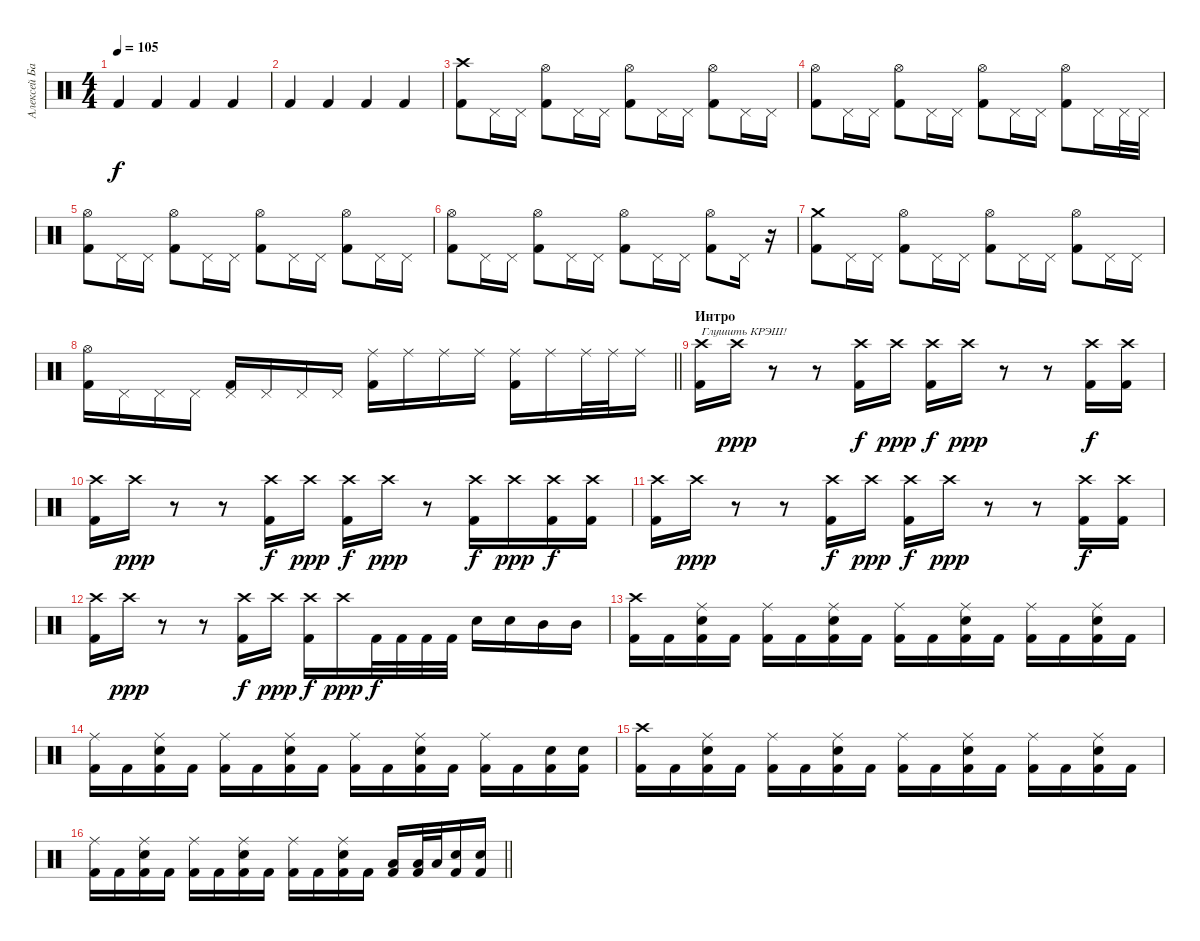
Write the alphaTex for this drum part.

\track ("Алексей Барзилович" "Алексей Ба") {instrument percussion}
\staff {score}
\articulation defaults
\ts (4 4)
\tempo 105
\clef neutral
\ks c "Kick (hit) 2".4{dy f} "Kick (hit) 2".4 "Kick (hit) 2".4 "Kick (hit) 2".4
|
"Kick (hit) 2".4 "Kick (hit) 2".4 "Kick (hit) 2".4 "Kick (hit) 2".4 |
("Crash high (hit)" "Kick (hit) 2").8 "Pedal Hi-Hat (hit)".16 "Pedal Hi-Hat (hit)".16 ("Hi-Hat (open)" "Kick (hit) 2").8 "Pedal Hi-Hat (hit)".16 "Pedal Hi-Hat (hit)".16 ("Hi-Hat (open)" "Kick (hit) 2").8 "Pedal Hi-Hat (hit)".16 "Pedal Hi-Hat (hit)".16 ("Hi-Hat (open)" "Kick (hit) 2").8 "Pedal Hi-Hat (hit)".16 "Pedal Hi-Hat (hit)".16 |
("Hi-Hat (open)" "Kick (hit) 2").8 "Pedal Hi-Hat (hit)".16 "Pedal Hi-Hat (hit)".16 ("Hi-Hat (open)" "Kick (hit) 2").8 "Pedal Hi-Hat (hit)".16 "Pedal Hi-Hat (hit)".16 ("Hi-Hat (open)" "Kick (hit) 2").8 "Pedal Hi-Hat (hit)".16 "Pedal Hi-Hat (hit)".16 ("Hi-Hat (open)" "Kick (hit) 2").8 "Pedal Hi-Hat (hit)".16 "Pedal Hi-Hat (hit)".32 "Pedal Hi-Hat (hit)".32 |
("Hi-Hat (open)" "Kick (hit) 2").8 "Pedal Hi-Hat (hit)".16 "Pedal Hi-Hat (hit)".16 ("Hi-Hat (open)" "Kick (hit) 2").8 "Pedal Hi-Hat (hit)".16 "Pedal Hi-Hat (hit)".16 ("Hi-Hat (open)" "Kick (hit) 2").8 "Pedal Hi-Hat (hit)".16 "Pedal Hi-Hat (hit)".16 ("Hi-Hat (open)" "Kick (hit) 2").8 "Pedal Hi-Hat (hit)".16 "Pedal Hi-Hat (hit)".16 |
("Hi-Hat (open)" "Kick (hit) 2").8 "Pedal Hi-Hat (hit)".16 "Pedal Hi-Hat (hit)".16 ("Hi-Hat (open)" "Kick (hit) 2").8 "Pedal Hi-Hat (hit)".16 "Pedal Hi-Hat (hit)".16 ("Hi-Hat (open)" "Kick (hit) 2").8 "Pedal Hi-Hat (hit)".16 "Pedal Hi-Hat (hit)".16 ("Hi-Hat (open)" "Kick (hit) 2").8 "Pedal Hi-Hat (hit)".16 r.16 |
("Crash medium (hit)" "Kick (hit) 2").8 "Pedal Hi-Hat (hit)".16 "Pedal Hi-Hat (hit)".16 ("Hi-Hat (open)" "Kick (hit) 2").8 "Pedal Hi-Hat (hit)".16 "Pedal Hi-Hat (hit)".16 ("Hi-Hat (open)" "Kick (hit) 2").8 "Pedal Hi-Hat (hit)".16 "Pedal Hi-Hat (hit)".16 ("Hi-Hat (open)" "Kick (hit) 2").8 "Pedal Hi-Hat (hit)".16 "Pedal Hi-Hat (hit)".16 |
\barLineRight lightlight
("Hi-Hat (open)" "Kick (hit) 2").16 "Pedal Hi-Hat (hit)".16 "Pedal Hi-Hat (hit)".16 "Pedal Hi-Hat (hit)".16 ("Pedal Hi-Hat (hit)" "Kick (hit) 2").16 "Pedal Hi-Hat (hit)".16 "Pedal Hi-Hat (hit)".16 "Pedal Hi-Hat (hit)".16 ("Ride (middle)" "Kick (hit) 2").16 "Ride (middle)".16 "Ride (middle)".16 "Ride (middle)".16 ("Ride (middle)" "Kick (hit) 2").16 "Ride (middle)".16 "Ride (middle)".32 "Ride (middle)".32 "Ride (middle)".16 |
\section ("" "Интро")
("Crash high (hit)" "Kick (hit) 2").16{txt "Глушить КРЭШ!"} "Crash high (hit)".16{dy ppp} r.8 r.8 ("Crash high (hit)" "Kick (hit) 2").16{dy f} "Crash high (hit)".16{dy ppp} ("Crash high (hit)" "Kick (hit) 2").16{dy f} "Crash high (hit)".16{dy ppp} r.8 r.8 ("Crash high (hit)" "Kick (hit) 2").16{dy f} ("Crash high (hit)" "Kick (hit) 2").16 |
("Crash high (hit)" "Kick (hit) 2").16 "Crash high (hit)".16{dy ppp} r.8 r.8 ("Crash high (hit)" "Kick (hit) 2").16{dy f} "Crash high (hit)".16{dy ppp} ("Crash high (hit)" "Kick (hit) 2").16{dy f} "Crash high (hit)".16{dy ppp} r.8 ("Crash high (hit)" "Kick (hit) 2").16{dy f} "Crash high (hit)".16{dy ppp} ("Crash high (hit)" "Kick (hit) 2").16{dy f} ("Crash high (hit)" "Kick (hit) 2").16 |
("Crash high (hit)" "Kick (hit) 2").16 "Crash high (hit)".16{dy ppp} r.8 r.8 ("Crash high (hit)" "Kick (hit) 2").16{dy f} "Crash high (hit)".16{dy ppp} ("Crash high (hit)" "Kick (hit) 2").16{dy f} "Crash high (hit)".16{dy ppp} r.8 r.8 ("Crash high (hit)" "Kick (hit) 2").16{dy f} ("Crash high (hit)" "Kick (hit) 2").16 |
("Crash high (hit)" "Kick (hit) 2").16 "Crash high (hit)".16{dy ppp} r.8 r.8 ("Crash high (hit)" "Kick (hit) 2").16{dy f} "Crash high (hit)".16{dy ppp} ("Crash high (hit)" "Kick (hit) 2").16{dy f} "Crash high (hit)".16{dy ppp} "Kick (hit) 2".32{dy f} "Kick (hit) 2".32 "Kick (hit) 2".32 "Kick (hit) 2".32 "Electric Snare (hit)".16 "Electric Snare (hit)".16 "Mid Tom (hit)".16 "Mid Tom (hit)".16 |
("Crash high (hit)" "Kick (hit) 2").16 "Kick (hit) 2".16 ("Ride (middle)" "Electric Snare (hit)" "Kick (hit) 2").16 "Kick (hit) 2".16 ("Ride (middle)" "Kick (hit) 2").16 "Kick (hit) 2".16 ("Ride (middle)" "Electric Snare (hit)" "Kick (hit) 2").16 "Kick (hit) 2".16 ("Ride (middle)" "Kick (hit) 2").16 "Kick (hit) 2".16 ("Ride (middle)" "Electric Snare (hit)" "Kick (hit) 2").16 "Kick (hit) 2".16 ("Ride (middle)" "Kick (hit) 2").16 "Kick (hit) 2".16 ("Ride (middle)" "Electric Snare (hit)" "Kick (hit) 2").16 "Kick (hit) 2".16 |
("Ride (middle)" "Kick (hit) 2").16 "Kick (hit) 2".16 ("Ride (middle)" "Electric Snare (hit)" "Kick (hit) 2").16 "Kick (hit) 2".16 ("Ride (middle)" "Kick (hit) 2").16 "Kick (hit) 2".16 ("Ride (middle)" "Electric Snare (hit)" "Kick (hit) 2").16 "Kick (hit) 2".16 ("Ride (middle)" "Kick (hit) 2").16 "Kick (hit) 2".16 ("Ride (middle)" "Electric Snare (hit)" "Kick (hit) 2").16 "Kick (hit) 2".16 ("Ride (middle)" "Kick (hit) 2").16 "Kick (hit) 2".16 ("Electric Snare (hit)" "Kick (hit) 2").16 ("Electric Snare (hit)" "Kick (hit) 2").16 |
("Crash high (hit)" "Kick (hit) 2").16 "Kick (hit) 2".16 ("Ride (middle)" "Electric Snare (hit)" "Kick (hit) 2").16 "Kick (hit) 2".16 ("Ride (middle)" "Kick (hit) 2").16 "Kick (hit) 2".16 ("Ride (middle)" "Electric Snare (hit)" "Kick (hit) 2").16 "Kick (hit) 2".16 ("Ride (middle)" "Kick (hit) 2").16 "Kick (hit) 2".16 ("Ride (middle)" "Electric Snare (hit)" "Kick (hit) 2").16 "Kick (hit) 2".16 ("Ride (middle)" "Kick (hit) 2").16 "Kick (hit) 2".16 ("Ride (middle)" "Electric Snare (hit)" "Kick (hit) 2").16 "Kick (hit) 2".16 |
\barLineRight lightlight
("Ride (middle)" "Kick (hit) 2").16 "Kick (hit) 2".16 ("Ride (middle)" "Electric Snare (hit)" "Kick (hit) 2").16 "Kick (hit) 2".16 ("Ride (middle)" "Kick (hit) 2").16 "Kick (hit) 2".16 ("Ride (middle)" "Electric Snare (hit)" "Kick (hit) 2").16 "Kick (hit) 2".16 ("Ride (middle)" "Kick (hit) 2").16 "Kick (hit) 2".16 ("Ride (middle)" "Electric Snare (hit)" "Kick (hit) 2").16 "Kick (hit) 2".16 ("Low Tom (hit)" "Kick (hit) 2").16 ("Low Tom (hit)" "Kick (hit) 2").32 "Low Tom (hit)".32 ("Electric Snare (hit)" "Kick (hit) 2").16 ("Electric Snare (hit)" "Kick (hit) 2").16
